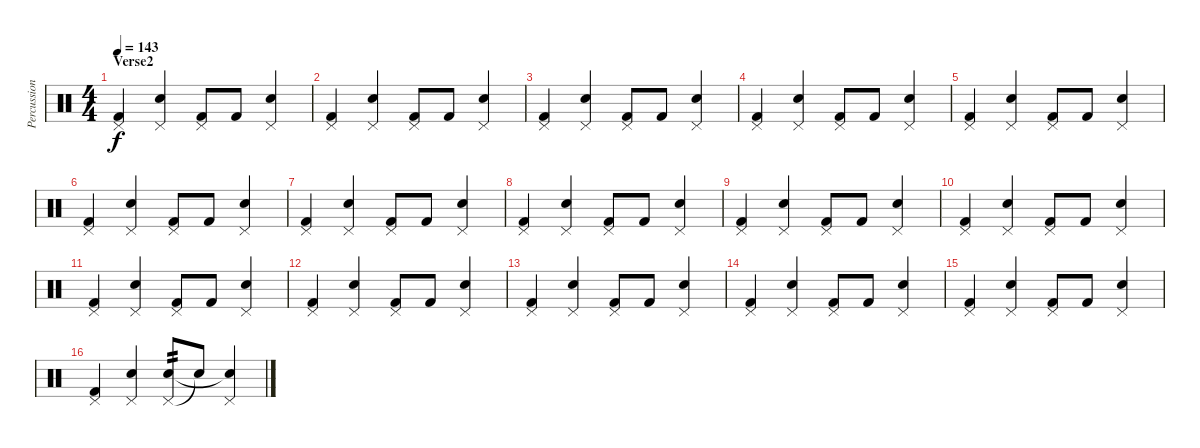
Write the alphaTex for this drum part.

\track ("Percussion" "Percussion") {instrument percussion}
\staff {score}
\articulation defaults
\ts (4 4)
\section ("" "Verse2")
\tempo 143
\clef neutral
\ks c
("Pedal Hi-Hat (hit)" "Kick (hit) 2").4{dy f} ("Pedal Hi-Hat (hit)" "Electric Snare (hit)").4 ("Pedal Hi-Hat (hit)" "Kick (hit) 2").8 "Kick (hit) 2".8 ("Pedal Hi-Hat (hit)" "Electric Snare (hit)").4 |
("Pedal Hi-Hat (hit)" "Kick (hit) 2").4 ("Pedal Hi-Hat (hit)" "Electric Snare (hit)").4 ("Pedal Hi-Hat (hit)" "Kick (hit) 2").8 "Kick (hit) 2".8 ("Pedal Hi-Hat (hit)" "Electric Snare (hit)").4 |
("Pedal Hi-Hat (hit)" "Kick (hit) 2").4 ("Pedal Hi-Hat (hit)" "Electric Snare (hit)").4 ("Pedal Hi-Hat (hit)" "Kick (hit) 2").8 "Kick (hit) 2".8 ("Pedal Hi-Hat (hit)" "Electric Snare (hit)").4 |
("Pedal Hi-Hat (hit)" "Kick (hit) 2").4 ("Pedal Hi-Hat (hit)" "Electric Snare (hit)").4 ("Pedal Hi-Hat (hit)" "Kick (hit) 2").8 "Kick (hit) 2".8 ("Pedal Hi-Hat (hit)" "Electric Snare (hit)").4 |
("Pedal Hi-Hat (hit)" "Kick (hit) 2").4 ("Pedal Hi-Hat (hit)" "Electric Snare (hit)").4 ("Pedal Hi-Hat (hit)" "Kick (hit) 2").8 "Kick (hit) 2".8 ("Pedal Hi-Hat (hit)" "Electric Snare (hit)").4 |
("Pedal Hi-Hat (hit)" "Kick (hit) 2").4 ("Pedal Hi-Hat (hit)" "Electric Snare (hit)").4 ("Pedal Hi-Hat (hit)" "Kick (hit) 2").8 "Kick (hit) 2".8 ("Pedal Hi-Hat (hit)" "Electric Snare (hit)").4 |
("Pedal Hi-Hat (hit)" "Kick (hit) 2").4 ("Pedal Hi-Hat (hit)" "Electric Snare (hit)").4 ("Pedal Hi-Hat (hit)" "Kick (hit) 2").8 "Kick (hit) 2".8 ("Pedal Hi-Hat (hit)" "Electric Snare (hit)").4 |
("Pedal Hi-Hat (hit)" "Kick (hit) 2").4 ("Pedal Hi-Hat (hit)" "Electric Snare (hit)").4 ("Pedal Hi-Hat (hit)" "Kick (hit) 2").8 "Kick (hit) 2".8 ("Pedal Hi-Hat (hit)" "Electric Snare (hit)").4 |
("Pedal Hi-Hat (hit)" "Kick (hit) 2").4 ("Pedal Hi-Hat (hit)" "Electric Snare (hit)").4 ("Pedal Hi-Hat (hit)" "Kick (hit) 2").8 "Kick (hit) 2".8 ("Pedal Hi-Hat (hit)" "Electric Snare (hit)").4 |
("Pedal Hi-Hat (hit)" "Kick (hit) 2").4 ("Pedal Hi-Hat (hit)" "Electric Snare (hit)").4 ("Pedal Hi-Hat (hit)" "Kick (hit) 2").8 "Kick (hit) 2".8 ("Pedal Hi-Hat (hit)" "Electric Snare (hit)").4 |
("Pedal Hi-Hat (hit)" "Kick (hit) 2").4 ("Pedal Hi-Hat (hit)" "Electric Snare (hit)").4 ("Pedal Hi-Hat (hit)" "Kick (hit) 2").8 "Kick (hit) 2".8 ("Pedal Hi-Hat (hit)" "Electric Snare (hit)").4 |
("Pedal Hi-Hat (hit)" "Kick (hit) 2").4 ("Pedal Hi-Hat (hit)" "Electric Snare (hit)").4 ("Pedal Hi-Hat (hit)" "Kick (hit) 2").8 "Kick (hit) 2".8 ("Pedal Hi-Hat (hit)" "Electric Snare (hit)").4 |
("Pedal Hi-Hat (hit)" "Kick (hit) 2").4 ("Pedal Hi-Hat (hit)" "Electric Snare (hit)").4 ("Pedal Hi-Hat (hit)" "Kick (hit) 2").8 "Kick (hit) 2".8 ("Pedal Hi-Hat (hit)" "Electric Snare (hit)").4 |
("Pedal Hi-Hat (hit)" "Kick (hit) 2").4 ("Pedal Hi-Hat (hit)" "Electric Snare (hit)").4 ("Pedal Hi-Hat (hit)" "Kick (hit) 2").8 "Kick (hit) 2".8 ("Pedal Hi-Hat (hit)" "Electric Snare (hit)").4 |
("Pedal Hi-Hat (hit)" "Kick (hit) 2").4 ("Pedal Hi-Hat (hit)" "Electric Snare (hit)").4 ("Pedal Hi-Hat (hit)" "Kick (hit) 2").8 "Kick (hit) 2".8 ("Pedal Hi-Hat (hit)" "Electric Snare (hit)").4 |
("Pedal Hi-Hat (hit)" "Kick (hit) 2").4 ("Pedal Hi-Hat (hit)" "Electric Snare (hit)").4 ("Pedal Hi-Hat (hit)" "Electric Snare (hit)").8{tp 2} "Snare (hit)"{t}.8 ("Pedal Hi-Hat (hit)" "Snare (hit)"{t}).4
